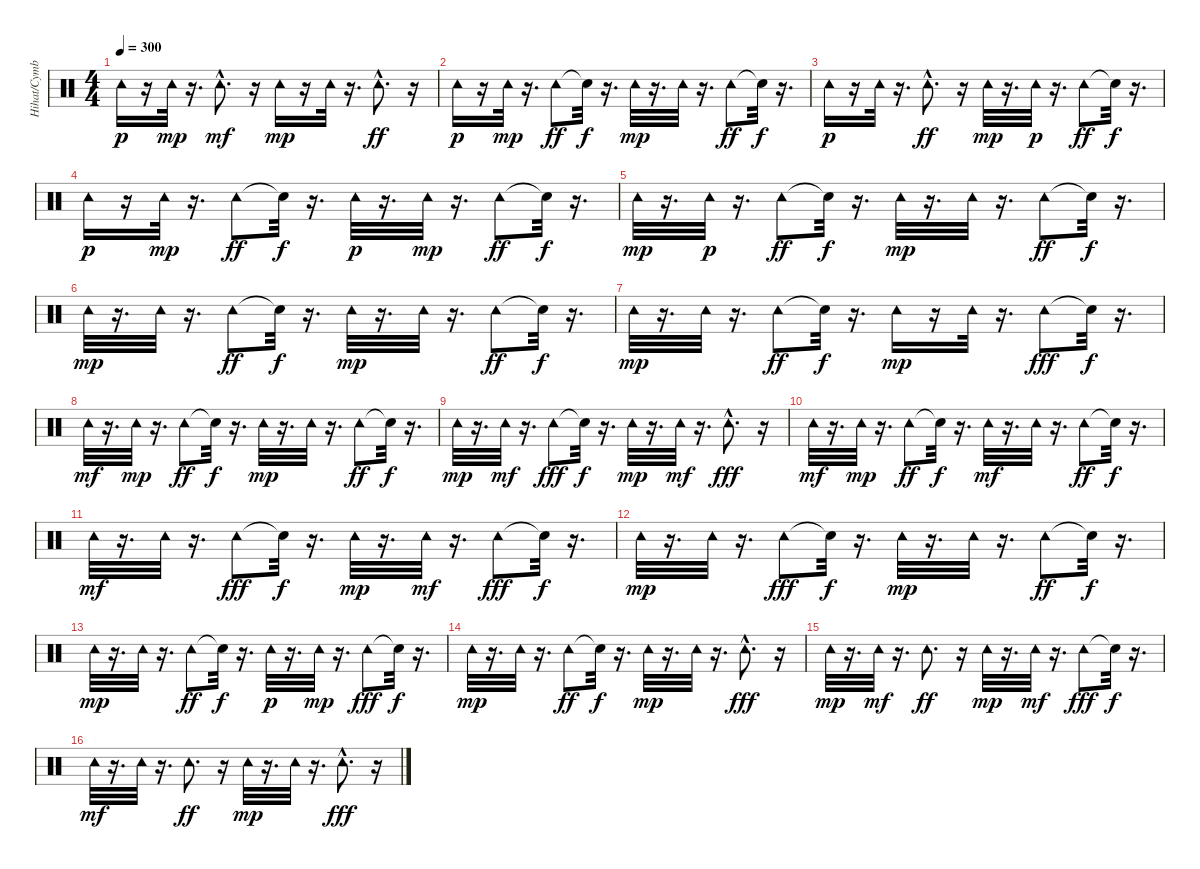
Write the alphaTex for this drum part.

\track ("Hihat/Cymbals/Tambourine" "Hihat/Cymb") {instrument percussion}
\staff {score}
\articulation defaults
\ts (4 4)
\tempo 300
\clef neutral
\ks c "Tambourine (hit)".16{dy p}
r.16 "Tambourine (hit)".32{dy mp} r.16{d} "Tambourine (hit)"{hac}.8{d dy mf} r.16 "Tambourine (hit)".16{dy mp} r.16 "Tambourine (hit)".32 r.16{d} "Tambourine (hit)"{hac}.8{d dy ff} r.16 |
"Tambourine (hit)".16{dy p} r.16 "Tambourine (hit)".32{dy mp} r.16{d} "Tambourine (hit)".8{dy ff} "Snare (hit)"{t}.32{dy f} r.16{d} "Tambourine (hit)".32{dy mp} r.16{d} "Tambourine (hit)".32 r.16{d} "Tambourine (hit)".8{dy ff} "Snare (hit)"{t}.32{dy f} r.16{d} |
"Tambourine (hit)".16{dy p} r.16 "Tambourine (hit)".32 r.16{d} "Tambourine (hit)"{hac}.8{d dy ff} r.16 "Tambourine (hit)".32{dy mp} r.16{d} "Tambourine (hit)".32{dy p} r.16{d} "Tambourine (hit)".8{dy ff} "Snare (hit)"{t}.32{dy f} r.16{d} |
"Tambourine (hit)".16{dy p} r.16 "Tambourine (hit)".32{dy mp} r.16{d} "Tambourine (hit)".8{dy ff} "Snare (hit)"{t}.32{dy f} r.16{d} "Tambourine (hit)".32{dy p} r.16{d} "Tambourine (hit)".32{dy mp} r.16{d} "Tambourine (hit)".8{dy ff} "Snare (hit)"{t}.32{dy f} r.16{d} |
"Tambourine (hit)".32{dy mp} r.16{d} "Tambourine (hit)".32{dy p} r.16{d} "Tambourine (hit)".8{dy ff} "Snare (hit)"{t}.32{dy f} r.16{d} "Tambourine (hit)".32{dy mp} r.16{d} "Tambourine (hit)".32 r.16{d} "Tambourine (hit)".8{dy ff} "Snare (hit)"{t}.32{dy f} r.16{d} |
"Tambourine (hit)".32{dy mp} r.16{d} "Tambourine (hit)".32 r.16{d} "Tambourine (hit)".8{dy ff} "Snare (hit)"{t}.32{dy f} r.16{d} "Tambourine (hit)".32{dy mp} r.16{d} "Tambourine (hit)".32 r.16{d} "Tambourine (hit)".8{dy ff} "Snare (hit)"{t}.32{dy f} r.16{d} |
"Tambourine (hit)".32{dy mp} r.16{d} "Tambourine (hit)".32 r.16{d} "Tambourine (hit)".8{dy ff} "Snare (hit)"{t}.32{dy f} r.16{d} "Tambourine (hit)".16{dy mp} r.16 "Tambourine (hit)".32 r.16{d} "Tambourine (hit)".8{dy fff} "Snare (hit)"{t}.32{dy f} r.16{d} |
"Tambourine (hit)".32{dy mf} r.16{d} "Tambourine (hit)".32{dy mp} r.16{d} "Tambourine (hit)".8{dy ff} "Snare (hit)"{t}.32{dy f} r.16{d} "Tambourine (hit)".32{dy mp} r.16{d} "Tambourine (hit)".32 r.16{d} "Tambourine (hit)".8{dy ff} "Snare (hit)"{t}.32{dy f} r.16{d} |
"Tambourine (hit)".32{dy mp} r.16{d} "Tambourine (hit)".32{dy mf} r.16{d} "Tambourine (hit)".8{dy fff} "Snare (hit)"{t}.32{dy f} r.16{d} "Tambourine (hit)".32{dy mp} r.16{d} "Tambourine (hit)".32{dy mf} r.16{d} "Tambourine (hit)"{hac}.8{d dy fff} r.16 |
"Tambourine (hit)".32{dy mf} r.16{d} "Tambourine (hit)".32{dy mp} r.16{d} "Tambourine (hit)".8{dy ff} "Snare (hit)"{t}.32{dy f} r.16{d} "Tambourine (hit)".32{dy mf} r.16{d} "Tambourine (hit)".32 r.16{d} "Tambourine (hit)".8{dy ff} "Snare (hit)"{t}.32{dy f} r.16{d} |
"Tambourine (hit)".32{dy mf} r.16{d} "Tambourine (hit)".32 r.16{d} "Tambourine (hit)".8{dy fff} "Snare (hit)"{t}.32{dy f} r.16{d} "Tambourine (hit)".32{dy mp} r.16{d} "Tambourine (hit)".32{dy mf} r.16{d} "Tambourine (hit)".8{dy fff} "Snare (hit)"{t}.32{dy f} r.16{d} |
"Tambourine (hit)".32{dy mp} r.16{d} "Tambourine (hit)".32 r.16{d} "Tambourine (hit)".8{dy fff} "Snare (hit)"{t}.32{dy f} r.16{d} "Tambourine (hit)".32{dy mp} r.16{d} "Tambourine (hit)".32 r.16{d} "Tambourine (hit)".8{dy ff} "Snare (hit)"{t}.32{dy f} r.16{d} |
"Tambourine (hit)".32{dy mp} r.16{d} "Tambourine (hit)".32 r.16{d} "Tambourine (hit)".8{dy ff} "Snare (hit)"{t}.32{dy f} r.16{d} "Tambourine (hit)".32{dy p} r.16{d} "Tambourine (hit)".32{dy mp} r.16{d} "Tambourine (hit)".8{dy fff} "Snare (hit)"{t}.32{dy f} r.16{d} |
"Tambourine (hit)".32{dy mp} r.16{d} "Tambourine (hit)".32 r.16{d} "Tambourine (hit)".8{dy ff} "Snare (hit)"{t}.32{dy f} r.16{d} "Tambourine (hit)".32{dy mp} r.16{d} "Tambourine (hit)".32 r.16{d} "Tambourine (hit)"{hac}.8{d dy fff} r.16 |
"Tambourine (hit)".32{dy mp} r.16{d} "Tambourine (hit)".32{dy mf} r.16{d} "Tambourine (hit)".8{d dy ff} r.16 "Tambourine (hit)".32{dy mp} r.16{d} "Tambourine (hit)".32{dy mf} r.16{d} "Tambourine (hit)".8{dy fff} "Snare (hit)"{t}.32{dy f} r.16{d} |
"Tambourine (hit)".32{dy mf} r.16{d} "Tambourine (hit)".32 r.16{d} "Tambourine (hit)".8{d dy ff} r.16 "Tambourine (hit)".32{dy mp} r.16{d} "Tambourine (hit)".32 r.16{d} "Tambourine (hit)"{hac}.8{d dy fff} r.16
